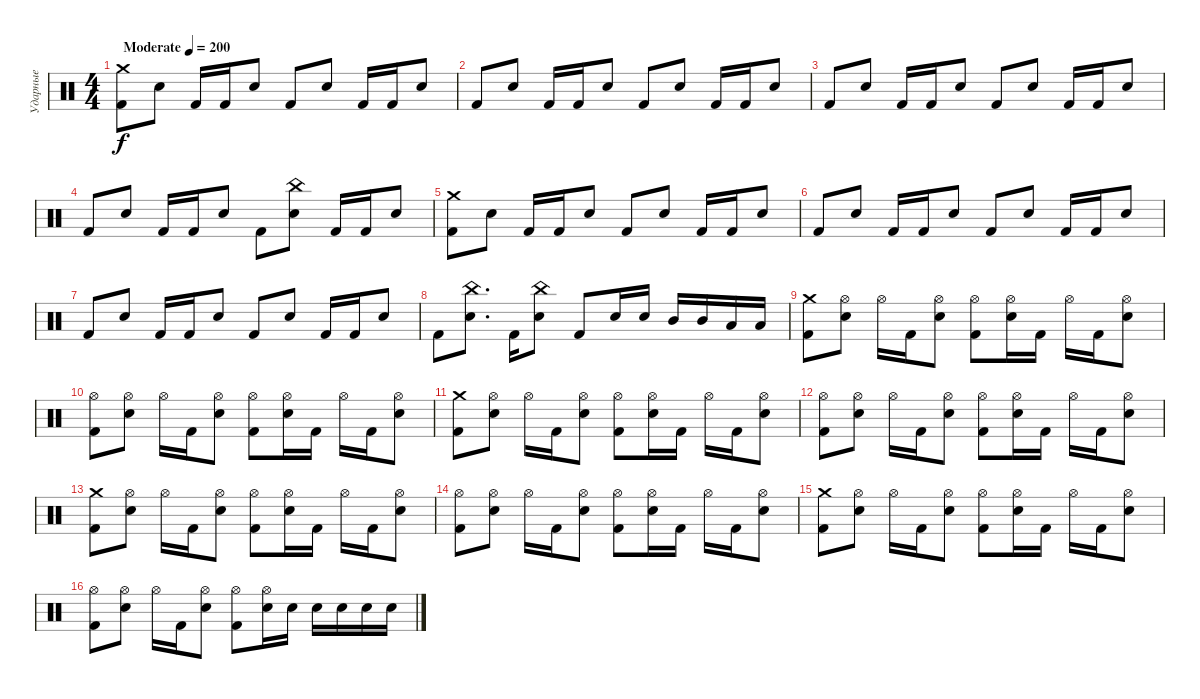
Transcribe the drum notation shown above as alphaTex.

\track ("Ударные" "Ударные") {instrument percussion}
\staff {score}
\articulation defaults
\ts (4 4)
\tempo (200 "Moderate")
\clef neutral
\ks c
("Crash medium (hit)" "Kick (hit) 2").8{dy f} "Electric Snare (hit)".8 "Kick (hit) 2".16 "Kick (hit) 2".16 "Electric Snare (hit)".8 "Kick (hit) 2".8 "Electric Snare (hit)".8 "Kick (hit) 2".16 "Kick (hit) 2".16 "Electric Snare (hit)".8 |
"Kick (hit) 2".8 "Electric Snare (hit)".8 "Kick (hit) 2".16 "Kick (hit) 2".16 "Electric Snare (hit)".8 "Kick (hit) 2".8 "Electric Snare (hit)".8 "Kick (hit) 2".16 "Kick (hit) 2".16 "Electric Snare (hit)".8 |
"Kick (hit) 2".8 "Electric Snare (hit)".8 "Kick (hit) 2".16 "Kick (hit) 2".16 "Electric Snare (hit)".8 "Kick (hit) 2".8 "Electric Snare (hit)".8 "Kick (hit) 2".16 "Kick (hit) 2".16 "Electric Snare (hit)".8 |
"Kick (hit) 2".8 "Electric Snare (hit)".8 "Kick (hit) 2".16 "Kick (hit) 2".16 "Electric Snare (hit)".8 "Kick (hit) 2".8 ("China (hit)" "Electric Snare (hit)").8 "Kick (hit) 2".16 "Kick (hit) 2".16 "Electric Snare (hit)".8 |
("Crash medium (hit)" "Kick (hit) 2").8 "Electric Snare (hit)".8 "Kick (hit) 2".16 "Kick (hit) 2".16 "Electric Snare (hit)".8 "Kick (hit) 2".8 "Electric Snare (hit)".8 "Kick (hit) 2".16 "Kick (hit) 2".16 "Electric Snare (hit)".8 |
"Kick (hit) 2".8 "Electric Snare (hit)".8 "Kick (hit) 2".16 "Kick (hit) 2".16 "Electric Snare (hit)".8 "Kick (hit) 2".8 "Electric Snare (hit)".8 "Kick (hit) 2".16 "Kick (hit) 2".16 "Electric Snare (hit)".8 |
"Kick (hit) 2".8 "Electric Snare (hit)".8 "Kick (hit) 2".16 "Kick (hit) 2".16 "Electric Snare (hit)".8 "Kick (hit) 2".8 "Electric Snare (hit)".8 "Kick (hit) 2".16 "Kick (hit) 2".16 "Electric Snare (hit)".8 |
"Kick (hit) 2".8 ("China (hit)" "Electric Snare (hit)").8{d} "Kick (hit) 2".16 ("China (hit)" "Electric Snare (hit)").8 "Kick (hit) 2".8 "Electric Snare (hit)".16 "Electric Snare (hit)".16 "Mid Tom (hit)".16 "Mid Tom (hit)".16 "Low Tom (hit)".16 "Low Tom (hit)".16 |
("Kick (hit) 2" "Crash medium (hit)").8 ("Electric Snare (hit)" "Hi-Hat (open)").8 "Hi-Hat (open)".16 "Kick (hit) 2".16 ("Electric Snare (hit)" "Hi-Hat (open)").8 ("Kick (hit) 2" "Hi-Hat (open)").8 ("Electric Snare (hit)" "Hi-Hat (open)").16 "Kick (hit) 2".16 "Hi-Hat (open)".16 "Kick (hit) 2".16 ("Electric Snare (hit)" "Hi-Hat (open)").8 |
("Kick (hit) 2" "Hi-Hat (open)").8 ("Electric Snare (hit)" "Hi-Hat (open)").8 "Hi-Hat (open)".16 "Kick (hit) 2".16 ("Electric Snare (hit)" "Hi-Hat (open)").8 ("Kick (hit) 2" "Hi-Hat (open)").8 ("Electric Snare (hit)" "Hi-Hat (open)").16 "Kick (hit) 2".16 "Hi-Hat (open)".16 "Kick (hit) 2".16 ("Electric Snare (hit)" "Hi-Hat (open)").8 |
("Kick (hit) 2" "Crash medium (hit)").8 ("Electric Snare (hit)" "Hi-Hat (open)").8 "Hi-Hat (open)".16 "Kick (hit) 2".16 ("Electric Snare (hit)" "Hi-Hat (open)").8 ("Kick (hit) 2" "Hi-Hat (open)").8 ("Electric Snare (hit)" "Hi-Hat (open)").16 "Kick (hit) 2".16 "Hi-Hat (open)".16 "Kick (hit) 2".16 ("Electric Snare (hit)" "Hi-Hat (open)").8 |
("Kick (hit) 2" "Hi-Hat (open)").8 ("Electric Snare (hit)" "Hi-Hat (open)").8 "Hi-Hat (open)".16 "Kick (hit) 2".16 ("Electric Snare (hit)" "Hi-Hat (open)").8 ("Kick (hit) 2" "Hi-Hat (open)").8 ("Electric Snare (hit)" "Hi-Hat (open)").16 "Kick (hit) 2".16 "Hi-Hat (open)".16 "Kick (hit) 2".16 ("Electric Snare (hit)" "Hi-Hat (open)").8 |
("Kick (hit) 2" "Crash medium (hit)").8 ("Electric Snare (hit)" "Hi-Hat (open)").8 "Hi-Hat (open)".16 "Kick (hit) 2".16 ("Electric Snare (hit)" "Hi-Hat (open)").8 ("Kick (hit) 2" "Hi-Hat (open)").8 ("Electric Snare (hit)" "Hi-Hat (open)").16 "Kick (hit) 2".16 "Hi-Hat (open)".16 "Kick (hit) 2".16 ("Electric Snare (hit)" "Hi-Hat (open)").8 |
("Kick (hit) 2" "Hi-Hat (open)").8 ("Electric Snare (hit)" "Hi-Hat (open)").8 "Hi-Hat (open)".16 "Kick (hit) 2".16 ("Electric Snare (hit)" "Hi-Hat (open)").8 ("Kick (hit) 2" "Hi-Hat (open)").8 ("Electric Snare (hit)" "Hi-Hat (open)").16 "Kick (hit) 2".16 "Hi-Hat (open)".16 "Kick (hit) 2".16 ("Electric Snare (hit)" "Hi-Hat (open)").8 |
("Kick (hit) 2" "Crash medium (hit)").8 ("Electric Snare (hit)" "Hi-Hat (open)").8 "Hi-Hat (open)".16 "Kick (hit) 2".16 ("Electric Snare (hit)" "Hi-Hat (open)").8 ("Kick (hit) 2" "Hi-Hat (open)").8 ("Electric Snare (hit)" "Hi-Hat (open)").16 "Kick (hit) 2".16 "Hi-Hat (open)".16 "Kick (hit) 2".16 ("Electric Snare (hit)" "Hi-Hat (open)").8 |
("Kick (hit) 2" "Hi-Hat (open)").8 ("Electric Snare (hit)" "Hi-Hat (open)").8 "Hi-Hat (open)".16 "Kick (hit) 2".16 ("Electric Snare (hit)" "Hi-Hat (open)").8 ("Kick (hit) 2" "Hi-Hat (open)").8 ("Electric Snare (hit)" "Hi-Hat (open)").16 "Electric Snare (hit)".16 "Electric Snare (hit)".16 "Electric Snare (hit)".16 "Electric Snare (hit)".16 "Electric Snare (hit)".16
